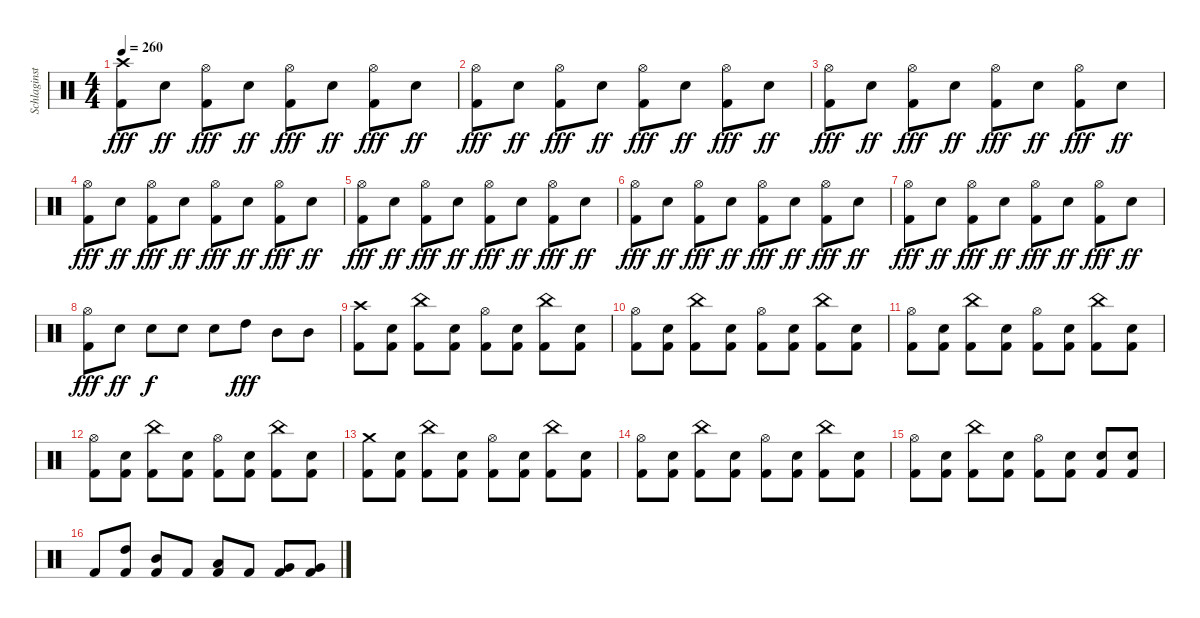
\track ("Schlaginstrumente - Auswahl" "Schlaginst") {instrument percussion}
\staff {score}
\articulation defaults
\ts (4 4)
\tempo 260
\clef neutral
\ks c
("Crash high (hit)" "Kick (hit) 2").8{dy fff} "Snare (hit) 2".8{dy ff} ("Hi-Hat (open)" "Kick (hit) 2").8{dy fff} "Snare (hit) 2".8{dy ff} ("Hi-Hat (open)" "Kick (hit) 2").8{dy fff} "Snare (hit) 2".8{dy ff} ("Hi-Hat (open)" "Kick (hit) 2").8{dy fff} "Snare (hit) 2".8{dy ff} |
("Hi-Hat (open)" "Kick (hit) 2").8{dy fff} "Snare (hit) 2".8{dy ff} ("Hi-Hat (open)" "Kick (hit) 2").8{dy fff} "Snare (hit) 2".8{dy ff} ("Hi-Hat (open)" "Kick (hit) 2").8{dy fff} "Snare (hit) 2".8{dy ff} ("Hi-Hat (open)" "Kick (hit) 2").8{dy fff} "Snare (hit) 2".8{dy ff} |
("Hi-Hat (open)" "Kick (hit) 2").8{dy fff} "Snare (hit) 2".8{dy ff} ("Hi-Hat (open)" "Kick (hit) 2").8{dy fff} "Snare (hit) 2".8{dy ff} ("Hi-Hat (open)" "Kick (hit) 2").8{dy fff} "Snare (hit) 2".8{dy ff} ("Hi-Hat (open)" "Kick (hit) 2").8{dy fff} "Snare (hit) 2".8{dy ff} |
("Hi-Hat (open)" "Kick (hit) 2").8{dy fff} "Snare (hit) 2".8{dy ff} ("Hi-Hat (open)" "Kick (hit) 2").8{dy fff} "Snare (hit) 2".8{dy ff} ("Hi-Hat (open)" "Kick (hit) 2").8{dy fff} "Snare (hit) 2".8{dy ff} ("Hi-Hat (open)" "Kick (hit) 2").8{dy fff} "Snare (hit) 2".8{dy ff} |
("Hi-Hat (open)" "Kick (hit) 2").8{dy fff} "Snare (hit) 2".8{dy ff} ("Hi-Hat (open)" "Kick (hit) 2").8{dy fff} "Snare (hit) 2".8{dy ff} ("Hi-Hat (open)" "Kick (hit) 2").8{dy fff} "Snare (hit) 2".8{dy ff} ("Hi-Hat (open)" "Kick (hit) 2").8{dy fff} "Snare (hit) 2".8{dy ff} |
("Hi-Hat (open)" "Kick (hit) 2").8{dy fff} "Snare (hit) 2".8{dy ff} ("Hi-Hat (open)" "Kick (hit) 2").8{dy fff} "Snare (hit) 2".8{dy ff} ("Hi-Hat (open)" "Kick (hit) 2").8{dy fff} "Snare (hit) 2".8{dy ff} ("Hi-Hat (open)" "Kick (hit) 2").8{dy fff} "Snare (hit) 2".8{dy ff} |
("Hi-Hat (open)" "Kick (hit) 2").8{dy fff} "Snare (hit) 2".8{dy ff} ("Hi-Hat (open)" "Kick (hit) 2").8{dy fff} "Snare (hit) 2".8{dy ff} ("Hi-Hat (open)" "Kick (hit) 2").8{dy fff} "Snare (hit) 2".8{dy ff} ("Hi-Hat (open)" "Kick (hit) 2").8{dy fff} "Snare (hit) 2".8{dy ff} |
("Hi-Hat (open)" "Kick (hit) 2").8{dy fff} "Snare (hit) 2".8{dy ff} "Snare (hit) 2".8{dy f} "Snare (hit) 2".8 "Snare (hit) 2".8 "High Tom (hit)".8{dy fff} "Mid Tom (hit)".8 "Mid Tom (hit)".8 |
("Crash high (hit)" "Kick (hit) 2").8 ("Snare (hit) 2" "Kick (hit) 2").8 ("China (hit)" "Kick (hit) 2").8 ("Snare (hit) 2" "Kick (hit) 2").8 ("Hi-Hat (open)" "Kick (hit) 2").8 ("Snare (hit) 2" "Kick (hit) 2").8 ("China (hit)" "Kick (hit) 2").8 ("Snare (hit) 2" "Kick (hit) 2").8 |
("Hi-Hat (open)" "Kick (hit) 2").8 ("Snare (hit) 2" "Kick (hit) 2").8 ("China (hit)" "Kick (hit) 2").8 ("Snare (hit) 2" "Kick (hit) 2").8 ("Hi-Hat (open)" "Kick (hit) 2").8 ("Snare (hit) 2" "Kick (hit) 2").8 ("China (hit)" "Kick (hit) 2").8 ("Snare (hit) 2" "Kick (hit) 2").8 |
("Hi-Hat (open)" "Kick (hit) 2").8 ("Snare (hit) 2" "Kick (hit) 2").8 ("China (hit)" "Kick (hit) 2").8 ("Snare (hit) 2" "Kick (hit) 2").8 ("Hi-Hat (open)" "Kick (hit) 2").8 ("Snare (hit) 2" "Kick (hit) 2").8 ("China (hit)" "Kick (hit) 2").8 ("Snare (hit) 2" "Kick (hit) 2").8 |
("Hi-Hat (open)" "Kick (hit) 2").8 ("Snare (hit) 2" "Kick (hit) 2").8 ("China (hit)" "Kick (hit) 2").8 ("Snare (hit) 2" "Kick (hit) 2").8 ("Hi-Hat (open)" "Kick (hit) 2").8 ("Snare (hit) 2" "Kick (hit) 2").8 ("China (hit)" "Kick (hit) 2").8 ("Snare (hit) 2" "Kick (hit) 2").8 |
("Crash medium (hit)" "Kick (hit) 2").8 ("Snare (hit) 2" "Kick (hit) 2").8 ("China (hit)" "Kick (hit) 2").8 ("Snare (hit) 2" "Kick (hit) 2").8 ("Hi-Hat (open)" "Kick (hit) 2").8 ("Snare (hit) 2" "Kick (hit) 2").8 ("China (hit)" "Kick (hit) 2").8 ("Snare (hit) 2" "Kick (hit) 2").8 |
("Hi-Hat (open)" "Kick (hit) 2").8 ("Snare (hit) 2" "Kick (hit) 2").8 ("China (hit)" "Kick (hit) 2").8 ("Snare (hit) 2" "Kick (hit) 2").8 ("Hi-Hat (open)" "Kick (hit) 2").8 ("Snare (hit) 2" "Kick (hit) 2").8 ("China (hit)" "Kick (hit) 2").8 ("Snare (hit) 2" "Kick (hit) 2").8 |
("Hi-Hat (open)" "Kick (hit) 2").8 ("Snare (hit) 2" "Kick (hit) 2").8 ("China (hit)" "Kick (hit) 2").8 ("Snare (hit) 2" "Kick (hit) 2").8 ("Hi-Hat (open)" "Kick (hit) 2").8 ("Snare (hit) 2" "Kick (hit) 2").8 ("Snare (hit) 2" "Kick (hit) 2").8 ("Snare (hit) 2" "Kick (hit) 2").8 |
"Kick (hit) 2".8 ("High Tom (hit)" "Kick (hit) 2").8 ("Mid Tom (hit)" "Kick (hit) 2").8 "Kick (hit) 2".8 ("Low Tom (hit)" "Kick (hit) 2").8 "Kick (hit) 2".8 ("Very Low Tom (hit)" "Kick (hit) 2").8 ("Very Low Tom (hit)" "Kick (hit) 2").8
